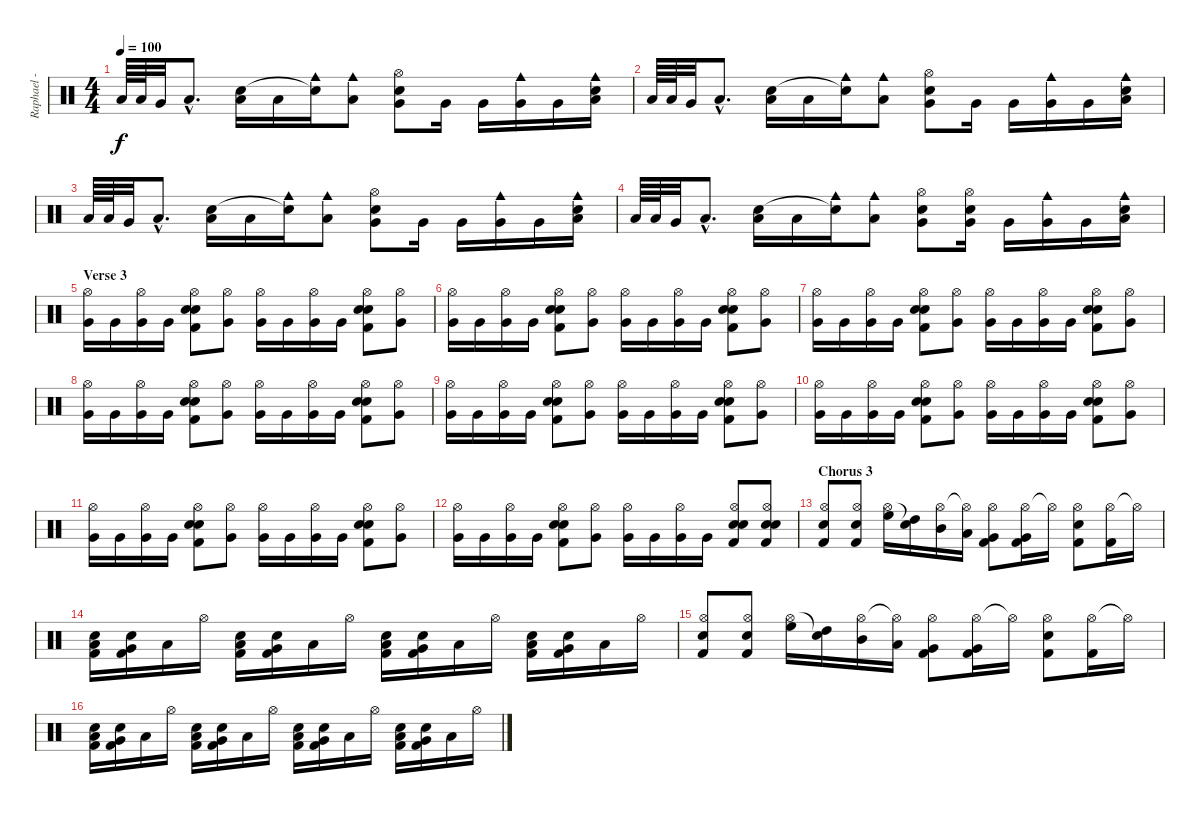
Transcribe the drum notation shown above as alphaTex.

\track ("Raphael - Batterie" "Raphael - ") {instrument percussion}
\staff {score}
\articulation defaults
\ts (4 4)
\tempo 100
\clef neutral
\ks c "Low Floor Tom (hit)".64{dy f} "Low Floor Tom (hit)".64 "Very Low Tom (hit)".32 "Low Tom (hit)"{hac}.8{d}
("Low Tom (hit)" "Electric Snare (hit)").16 "Low Floor Tom (hit)".16 ("Cowbell medium (hit)" "Snare (hit)"{t}).16 ("Cowbell medium (hit)" "Low Tom (hit)").8 ("Hi-Hat (open)" "Very Low Tom (hit)" "Snare (hit) 2").8 "Very Low Tom (hit)".16 "Very Low Tom (hit)".16 ("Cowbell medium (hit)" "Very Low Tom (hit)").16 "Very Low Tom (hit)".16 ("Cowbell medium (hit)" "Low Floor Tom (hit)" "Electric Snare (hit)").16 |
"Low Floor Tom (hit)".64 "Low Floor Tom (hit)".64 "Very Low Tom (hit)".32 "Low Tom (hit)"{hac}.8{d} ("Low Tom (hit)" "Electric Snare (hit)").16 "Low Floor Tom (hit)".16 ("Cowbell medium (hit)" "Snare (hit)"{t}).16 ("Cowbell medium (hit)" "Low Tom (hit)").8 ("Hi-Hat (open)" "Very Low Tom (hit)" "Snare (hit) 2").8 "Very Low Tom (hit)".16 "Very Low Tom (hit)".16 ("Cowbell medium (hit)" "Very Low Tom (hit)").16 "Very Low Tom (hit)".16 ("Cowbell medium (hit)" "Low Floor Tom (hit)" "Electric Snare (hit)").16 |
"Low Floor Tom (hit)".64 "Low Floor Tom (hit)".64 "Very Low Tom (hit)".32 "Low Tom (hit)"{hac}.8{d} ("Low Tom (hit)" "Electric Snare (hit)").16 "Low Floor Tom (hit)".16 ("Cowbell medium (hit)" "Snare (hit)"{t}).16 ("Cowbell medium (hit)" "Low Tom (hit)").8 ("Hi-Hat (open)" "Very Low Tom (hit)" "Snare (hit) 2").8 "Very Low Tom (hit)".16 "Very Low Tom (hit)".16 ("Cowbell medium (hit)" "Very Low Tom (hit)").16 "Very Low Tom (hit)".16 ("Cowbell medium (hit)" "Low Floor Tom (hit)" "Electric Snare (hit)").16 |
"Low Floor Tom (hit)".64 "Low Floor Tom (hit)".64 "Very Low Tom (hit)".32 "Low Tom (hit)"{hac}.8{d} ("Low Tom (hit)" "Electric Snare (hit)").16 "Low Floor Tom (hit)".16 ("Cowbell medium (hit)" "Snare (hit)"{t}).16 ("Cowbell medium (hit)" "Low Tom (hit)").8 ("Hi-Hat (open)" "Very Low Tom (hit)" "Snare (hit) 2").8 ("Hi-Hat (open)" "Very Low Tom (hit)" "Snare (hit) 2").16 "Very Low Tom (hit)".16 ("Cowbell medium (hit)" "Very Low Tom (hit)").16 "Very Low Tom (hit)".16 ("Cowbell medium (hit)" "Low Floor Tom (hit)" "Electric Snare (hit)").16 |
\section ("" "Verse 3")
("Hi-Hat (open)" "Very Low Tom (hit)").16 "Very Low Tom (hit)".16 ("Hi-Hat (open)" "Very Low Tom (hit)").16 "Very Low Tom (hit)".16 ("Hi-Hat (open)" "Hand Clap (hit)" "Snare (hit) 2" "Kick (hit) 2").8 ("Hi-Hat (open)" "Very Low Tom (hit)").8 ("Hi-Hat (open)" "Very Low Tom (hit)").16 "Very Low Tom (hit)".16 ("Hi-Hat (open)" "Very Low Tom (hit)").16 "Very Low Tom (hit)".16 ("Hi-Hat (open)" "Hand Clap (hit)" "Snare (hit) 2" "Kick (hit) 2").8 ("Hi-Hat (open)" "Very Low Tom (hit)").8 |
("Hi-Hat (open)" "Very Low Tom (hit)").16 "Very Low Tom (hit)".16 ("Hi-Hat (open)" "Very Low Tom (hit)").16 "Very Low Tom (hit)".16 ("Hi-Hat (open)" "Hand Clap (hit)" "Snare (hit) 2" "Kick (hit) 2").8 ("Hi-Hat (open)" "Very Low Tom (hit)").8 ("Hi-Hat (open)" "Very Low Tom (hit)").16 "Very Low Tom (hit)".16 ("Hi-Hat (open)" "Very Low Tom (hit)").16 "Very Low Tom (hit)".16 ("Hi-Hat (open)" "Hand Clap (hit)" "Snare (hit) 2" "Kick (hit) 2").8 ("Hi-Hat (open)" "Very Low Tom (hit)").8 |
("Hi-Hat (open)" "Very Low Tom (hit)").16 "Very Low Tom (hit)".16 ("Hi-Hat (open)" "Very Low Tom (hit)").16 "Very Low Tom (hit)".16 ("Hi-Hat (open)" "Hand Clap (hit)" "Snare (hit) 2" "Kick (hit) 2").8 ("Hi-Hat (open)" "Very Low Tom (hit)").8 ("Hi-Hat (open)" "Very Low Tom (hit)").16 "Very Low Tom (hit)".16 ("Hi-Hat (open)" "Very Low Tom (hit)").16 "Very Low Tom (hit)".16 ("Hi-Hat (open)" "Hand Clap (hit)" "Snare (hit) 2" "Kick (hit) 2").8 ("Hi-Hat (open)" "Very Low Tom (hit)").8 |
("Hi-Hat (open)" "Very Low Tom (hit)").16 "Very Low Tom (hit)".16 ("Hi-Hat (open)" "Very Low Tom (hit)").16 "Very Low Tom (hit)".16 ("Hi-Hat (open)" "Hand Clap (hit)" "Snare (hit) 2" "Kick (hit) 2").8 ("Hi-Hat (open)" "Very Low Tom (hit)").8 ("Hi-Hat (open)" "Very Low Tom (hit)").16 "Very Low Tom (hit)".16 ("Hi-Hat (open)" "Very Low Tom (hit)").16 "Very Low Tom (hit)".16 ("Hi-Hat (open)" "Hand Clap (hit)" "Snare (hit) 2" "Kick (hit) 2").8 ("Hi-Hat (open)" "Very Low Tom (hit)").8 |
("Hi-Hat (open)" "Very Low Tom (hit)").16 "Very Low Tom (hit)".16 ("Hi-Hat (open)" "Very Low Tom (hit)").16 "Very Low Tom (hit)".16 ("Hi-Hat (open)" "Hand Clap (hit)" "Snare (hit) 2" "Kick (hit) 2").8 ("Hi-Hat (open)" "Very Low Tom (hit)").8 ("Hi-Hat (open)" "Very Low Tom (hit)").16 "Very Low Tom (hit)".16 ("Hi-Hat (open)" "Very Low Tom (hit)").16 "Very Low Tom (hit)".16 ("Hi-Hat (open)" "Hand Clap (hit)" "Snare (hit) 2" "Kick (hit) 2").8 ("Hi-Hat (open)" "Very Low Tom (hit)").8 |
("Hi-Hat (open)" "Very Low Tom (hit)").16 "Very Low Tom (hit)".16 ("Hi-Hat (open)" "Very Low Tom (hit)").16 "Very Low Tom (hit)".16 ("Hi-Hat (open)" "Hand Clap (hit)" "Snare (hit) 2" "Kick (hit) 2").8 ("Hi-Hat (open)" "Very Low Tom (hit)").8 ("Hi-Hat (open)" "Very Low Tom (hit)").16 "Very Low Tom (hit)".16 ("Hi-Hat (open)" "Very Low Tom (hit)").16 "Very Low Tom (hit)".16 ("Hi-Hat (open)" "Hand Clap (hit)" "Snare (hit) 2" "Kick (hit) 2").8 ("Hi-Hat (open)" "Very Low Tom (hit)").8 |
("Hi-Hat (open)" "Very Low Tom (hit)").16 "Very Low Tom (hit)".16 ("Hi-Hat (open)" "Very Low Tom (hit)").16 "Very Low Tom (hit)".16 ("Hi-Hat (open)" "Hand Clap (hit)" "Snare (hit) 2" "Kick (hit) 2").8 ("Hi-Hat (open)" "Very Low Tom (hit)").8 ("Hi-Hat (open)" "Very Low Tom (hit)").16 "Very Low Tom (hit)".16 ("Hi-Hat (open)" "Very Low Tom (hit)").16 "Very Low Tom (hit)".16 ("Hi-Hat (open)" "Hand Clap (hit)" "Snare (hit) 2" "Kick (hit) 2").8 ("Hi-Hat (open)" "Very Low Tom (hit)").8 |
("Hi-Hat (open)" "Very Low Tom (hit)").16 "Very Low Tom (hit)".16 ("Hi-Hat (open)" "Very Low Tom (hit)").16 "Very Low Tom (hit)".16 ("Hi-Hat (open)" "Hand Clap (hit)" "Snare (hit) 2" "Kick (hit) 2").8 ("Hi-Hat (open)" "Very Low Tom (hit)").8 ("Hi-Hat (open)" "Very Low Tom (hit)").16 "Very Low Tom (hit)".16 ("Hi-Hat (open)" "Very Low Tom (hit)").16 "Very Low Tom (hit)".16 ("Hi-Hat (open)" "Hand Clap (hit)" "Snare (hit) 2" "Kick (hit) 2").8 ("Hi-Hat (open)" "Hand Clap (hit)" "Snare (hit) 2" "Kick (hit) 2").8 |
\section ("" "Chorus 3")
("Hi-Hat (open)" "Electric Snare (hit)" "Kick (hit) 2").8 ("Hi-Hat (open)" "Electric Snare (hit)" "Kick (hit) 2").8 ("Hi-Hat (open)" "High Floor Tom (hit)").16 ("Snare (hit)"{t} "High Tom (hit)").16 ("Hi-Hat (open)" "Mid Tom (hit)").16 ("Hi-Hat (open)"{t} "Low Tom (hit)").16 ("Hi-Hat (open)" "Very Low Tom (hit)" "Kick (hit) 2").8 ("Hi-Hat (open)" "Very Low Tom (hit)" "Kick (hit) 2").16 "Hi-Hat (open)"{t}.16 ("Hi-Hat (open)" "Snare (hit) 2" "Kick (hit) 2").8 ("Hi-Hat (open)" "Kick (hit) 2").16 "Hi-Hat (open)"{t}.16 |
("Low Tom (hit)" "Electric Snare (hit)" "Kick (hit) 2").16 ("Very Low Tom (hit)" "Electric Snare (hit)" "Kick (hit) 2").16 "Low Floor Tom (hit)".16 "Hi-Hat (open)".16 ("Low Tom (hit)" "Electric Snare (hit)" "Kick (hit) 2").16 ("Very Low Tom (hit)" "Electric Snare (hit)" "Kick (hit) 2").16 "Low Floor Tom (hit)".16 "Hi-Hat (open)".16 ("Low Tom (hit)" "Electric Snare (hit)" "Kick (hit) 2").16 ("Very Low Tom (hit)" "Electric Snare (hit)" "Kick (hit) 2").16 "Low Floor Tom (hit)".16 "Hi-Hat (open)".16 ("Low Tom (hit)" "Electric Snare (hit)" "Kick (hit) 2").16 ("Very Low Tom (hit)" "Electric Snare (hit)" "Kick (hit) 2").16 "Low Floor Tom (hit)".16 "Hi-Hat (open)".16 |
("Hi-Hat (open)" "Electric Snare (hit)" "Kick (hit) 2").8 ("Hi-Hat (open)" "Electric Snare (hit)" "Kick (hit) 2").8 ("Hi-Hat (open)" "High Floor Tom (hit)").16 ("Snare (hit)"{t} "High Tom (hit)").16 ("Hi-Hat (open)" "Mid Tom (hit)").16 ("Hi-Hat (open)"{t} "Low Tom (hit)").16 ("Hi-Hat (open)" "Very Low Tom (hit)" "Kick (hit) 2").8 ("Hi-Hat (open)" "Very Low Tom (hit)" "Kick (hit) 2").16 "Hi-Hat (open)"{t}.16 ("Hi-Hat (open)" "Snare (hit) 2" "Kick (hit) 2").8 ("Hi-Hat (open)" "Kick (hit) 2").16 "Hi-Hat (open)"{t}.16 |
("Low Tom (hit)" "Electric Snare (hit)" "Kick (hit) 2").16 ("Very Low Tom (hit)" "Electric Snare (hit)" "Kick (hit) 2").16 "Low Floor Tom (hit)".16 "Hi-Hat (open)".16 ("Low Tom (hit)" "Electric Snare (hit)" "Kick (hit) 2").16 ("Very Low Tom (hit)" "Electric Snare (hit)" "Kick (hit) 2").16 "Low Floor Tom (hit)".16 "Hi-Hat (open)".16 ("Low Tom (hit)" "Electric Snare (hit)" "Kick (hit) 2").16 ("Very Low Tom (hit)" "Electric Snare (hit)" "Kick (hit) 2").16 "Low Floor Tom (hit)".16 "Hi-Hat (open)".16 ("Low Tom (hit)" "Electric Snare (hit)" "Kick (hit) 2").16 ("Very Low Tom (hit)" "Electric Snare (hit)" "Kick (hit) 2").16 "Low Floor Tom (hit)".16 "Hi-Hat (open)".16
